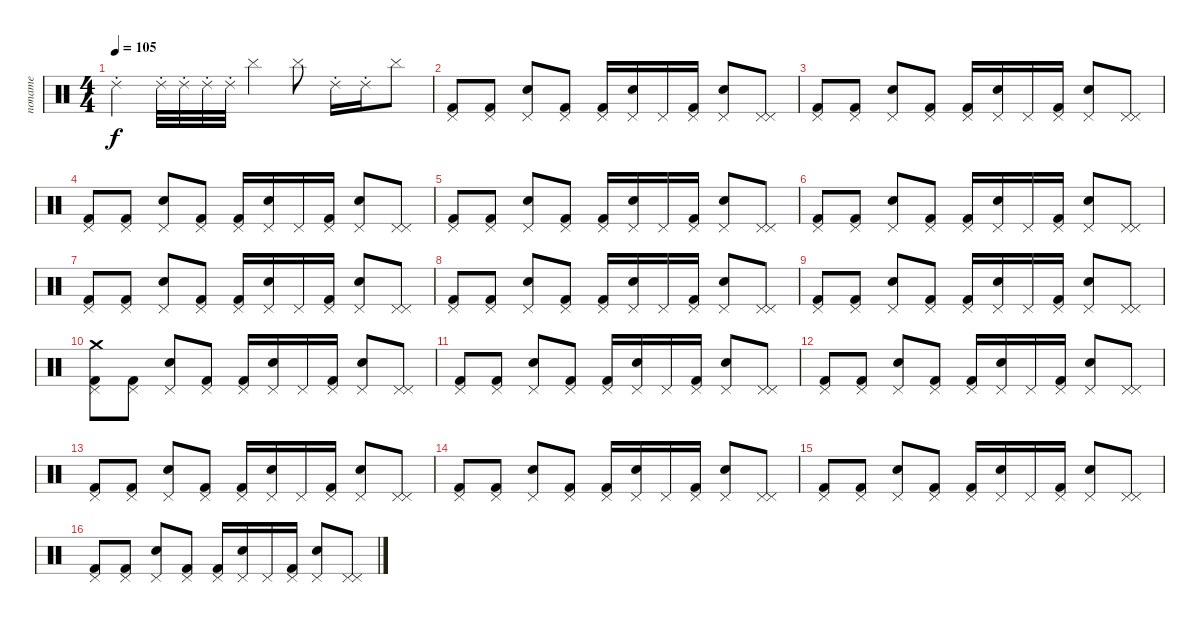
\track ("noname" "noname") {instrument percussion}
\staff {score}
\articulation defaults
\ts (4 4)
\tempo 105
\clef neutral
\ks c "Ride (choke) 2".4{dy f} "Ride (choke) 2".32 "Ride (choke) 2".32 "Ride (choke) 2".32 "Ride (choke) 2".32 "Cymbal (hit)".4 "Cymbal (hit)".8 "Ride (choke) 2".16 "Ride (choke) 2".16 "Cymbal (hit)".8
|
("Pedal Hi-Hat (hit)" "Kick (hit) 2").8 ("Pedal Hi-Hat (hit)" "Kick (hit) 2").8 ("Pedal Hi-Hat (hit)" "Snare (hit) 2").8 ("Pedal Hi-Hat (hit)" "Kick (hit) 2").8 ("Pedal Hi-Hat (hit)" "Kick (hit) 2").16 ("Pedal Hi-Hat (hit)" "Snare (hit) 2").16 "Pedal Hi-Hat (hit)".16 ("Pedal Hi-Hat (hit)" "Kick (hit) 2").16 ("Pedal Hi-Hat (hit)" "Snare (hit) 2").8 ("Pedal Hi-Hat (hit)" "Pedal Hi-Hat (hit)").8 |
("Pedal Hi-Hat (hit)" "Kick (hit) 2").8 ("Pedal Hi-Hat (hit)" "Kick (hit) 2").8 ("Pedal Hi-Hat (hit)" "Snare (hit) 2").8 ("Pedal Hi-Hat (hit)" "Kick (hit) 2").8 ("Pedal Hi-Hat (hit)" "Kick (hit) 2").16 ("Pedal Hi-Hat (hit)" "Snare (hit) 2").16 "Pedal Hi-Hat (hit)".16 ("Pedal Hi-Hat (hit)" "Kick (hit) 2").16 ("Pedal Hi-Hat (hit)" "Snare (hit) 2").8 ("Pedal Hi-Hat (hit)" "Pedal Hi-Hat (hit)").8 |
("Pedal Hi-Hat (hit)" "Kick (hit) 2").8 ("Pedal Hi-Hat (hit)" "Kick (hit) 2").8 ("Pedal Hi-Hat (hit)" "Snare (hit) 2").8 ("Pedal Hi-Hat (hit)" "Kick (hit) 2").8 ("Pedal Hi-Hat (hit)" "Kick (hit) 2").16 ("Pedal Hi-Hat (hit)" "Snare (hit) 2").16 "Pedal Hi-Hat (hit)".16 ("Pedal Hi-Hat (hit)" "Kick (hit) 2").16 ("Pedal Hi-Hat (hit)" "Snare (hit) 2").8 ("Pedal Hi-Hat (hit)" "Pedal Hi-Hat (hit)").8 |
("Pedal Hi-Hat (hit)" "Kick (hit) 2").8 ("Pedal Hi-Hat (hit)" "Kick (hit) 2").8 ("Pedal Hi-Hat (hit)" "Snare (hit) 2").8 ("Pedal Hi-Hat (hit)" "Kick (hit) 2").8 ("Pedal Hi-Hat (hit)" "Kick (hit) 2").16 ("Pedal Hi-Hat (hit)" "Snare (hit) 2").16 "Pedal Hi-Hat (hit)".16 ("Pedal Hi-Hat (hit)" "Kick (hit) 2").16 ("Pedal Hi-Hat (hit)" "Snare (hit) 2").8 ("Pedal Hi-Hat (hit)" "Pedal Hi-Hat (hit)").8 |
("Pedal Hi-Hat (hit)" "Kick (hit) 2").8 ("Pedal Hi-Hat (hit)" "Kick (hit) 2").8 ("Pedal Hi-Hat (hit)" "Snare (hit) 2").8 ("Pedal Hi-Hat (hit)" "Kick (hit) 2").8 ("Pedal Hi-Hat (hit)" "Kick (hit) 2").16 ("Pedal Hi-Hat (hit)" "Snare (hit) 2").16 "Pedal Hi-Hat (hit)".16 ("Pedal Hi-Hat (hit)" "Kick (hit) 2").16 ("Pedal Hi-Hat (hit)" "Snare (hit) 2").8 ("Pedal Hi-Hat (hit)" "Pedal Hi-Hat (hit)").8 |
("Pedal Hi-Hat (hit)" "Kick (hit) 2").8 ("Pedal Hi-Hat (hit)" "Kick (hit) 2").8 ("Pedal Hi-Hat (hit)" "Snare (hit) 2").8 ("Pedal Hi-Hat (hit)" "Kick (hit) 2").8 ("Pedal Hi-Hat (hit)" "Kick (hit) 2").16 ("Pedal Hi-Hat (hit)" "Snare (hit) 2").16 "Pedal Hi-Hat (hit)".16 ("Pedal Hi-Hat (hit)" "Kick (hit) 2").16 ("Pedal Hi-Hat (hit)" "Snare (hit) 2").8 ("Pedal Hi-Hat (hit)" "Pedal Hi-Hat (hit)").8 |
("Pedal Hi-Hat (hit)" "Kick (hit) 2").8 ("Pedal Hi-Hat (hit)" "Kick (hit) 2").8 ("Pedal Hi-Hat (hit)" "Snare (hit) 2").8 ("Pedal Hi-Hat (hit)" "Kick (hit) 2").8 ("Pedal Hi-Hat (hit)" "Kick (hit) 2").16 ("Pedal Hi-Hat (hit)" "Snare (hit) 2").16 "Pedal Hi-Hat (hit)".16 ("Pedal Hi-Hat (hit)" "Kick (hit) 2").16 ("Pedal Hi-Hat (hit)" "Snare (hit) 2").8 ("Pedal Hi-Hat (hit)" "Pedal Hi-Hat (hit)").8 |
("Pedal Hi-Hat (hit)" "Kick (hit) 2").8 ("Pedal Hi-Hat (hit)" "Kick (hit) 2").8 ("Pedal Hi-Hat (hit)" "Snare (hit) 2").8 ("Pedal Hi-Hat (hit)" "Kick (hit) 2").8 ("Pedal Hi-Hat (hit)" "Kick (hit) 2").16 ("Pedal Hi-Hat (hit)" "Snare (hit) 2").16 "Pedal Hi-Hat (hit)".16 ("Pedal Hi-Hat (hit)" "Kick (hit) 2").16 ("Pedal Hi-Hat (hit)" "Snare (hit) 2").8 ("Pedal Hi-Hat (hit)" "Pedal Hi-Hat (hit)").8 |
("Pedal Hi-Hat (hit)" "Crash medium (hit)" "Kick (hit) 2").8 ("Pedal Hi-Hat (hit)" "Kick (hit) 2").8 ("Pedal Hi-Hat (hit)" "Snare (hit) 2").8 ("Pedal Hi-Hat (hit)" "Kick (hit) 2").8 ("Pedal Hi-Hat (hit)" "Kick (hit) 2").16 ("Pedal Hi-Hat (hit)" "Snare (hit) 2").16 "Pedal Hi-Hat (hit)".16 ("Pedal Hi-Hat (hit)" "Kick (hit) 2").16 ("Pedal Hi-Hat (hit)" "Snare (hit) 2").8 ("Pedal Hi-Hat (hit)" "Pedal Hi-Hat (hit)").8 |
("Pedal Hi-Hat (hit)" "Kick (hit) 2").8 ("Pedal Hi-Hat (hit)" "Kick (hit) 2").8 ("Pedal Hi-Hat (hit)" "Snare (hit) 2").8 ("Pedal Hi-Hat (hit)" "Kick (hit) 2").8 ("Pedal Hi-Hat (hit)" "Kick (hit) 2").16 ("Pedal Hi-Hat (hit)" "Snare (hit) 2").16 "Pedal Hi-Hat (hit)".16 ("Pedal Hi-Hat (hit)" "Kick (hit) 2").16 ("Pedal Hi-Hat (hit)" "Snare (hit) 2").8 ("Pedal Hi-Hat (hit)" "Pedal Hi-Hat (hit)").8 |
("Pedal Hi-Hat (hit)" "Kick (hit) 2").8 ("Pedal Hi-Hat (hit)" "Kick (hit) 2").8 ("Pedal Hi-Hat (hit)" "Snare (hit) 2").8 ("Pedal Hi-Hat (hit)" "Kick (hit) 2").8 ("Pedal Hi-Hat (hit)" "Kick (hit) 2").16 ("Pedal Hi-Hat (hit)" "Snare (hit) 2").16 "Pedal Hi-Hat (hit)".16 ("Pedal Hi-Hat (hit)" "Kick (hit) 2").16 ("Pedal Hi-Hat (hit)" "Snare (hit) 2").8 ("Pedal Hi-Hat (hit)" "Pedal Hi-Hat (hit)").8 |
("Pedal Hi-Hat (hit)" "Kick (hit) 2").8 ("Pedal Hi-Hat (hit)" "Kick (hit) 2").8 ("Pedal Hi-Hat (hit)" "Snare (hit) 2").8 ("Pedal Hi-Hat (hit)" "Kick (hit) 2").8 ("Pedal Hi-Hat (hit)" "Kick (hit) 2").16 ("Pedal Hi-Hat (hit)" "Snare (hit) 2").16 "Pedal Hi-Hat (hit)".16 ("Pedal Hi-Hat (hit)" "Kick (hit) 2").16 ("Pedal Hi-Hat (hit)" "Snare (hit) 2").8 ("Pedal Hi-Hat (hit)" "Pedal Hi-Hat (hit)").8 |
("Pedal Hi-Hat (hit)" "Kick (hit) 2").8 ("Pedal Hi-Hat (hit)" "Kick (hit) 2").8 ("Pedal Hi-Hat (hit)" "Snare (hit) 2").8 ("Pedal Hi-Hat (hit)" "Kick (hit) 2").8 ("Pedal Hi-Hat (hit)" "Kick (hit) 2").16 ("Pedal Hi-Hat (hit)" "Snare (hit) 2").16 "Pedal Hi-Hat (hit)".16 ("Pedal Hi-Hat (hit)" "Kick (hit) 2").16 ("Pedal Hi-Hat (hit)" "Snare (hit) 2").8 ("Pedal Hi-Hat (hit)" "Pedal Hi-Hat (hit)").8 |
("Pedal Hi-Hat (hit)" "Kick (hit) 2").8 ("Pedal Hi-Hat (hit)" "Kick (hit) 2").8 ("Pedal Hi-Hat (hit)" "Snare (hit) 2").8 ("Pedal Hi-Hat (hit)" "Kick (hit) 2").8 ("Pedal Hi-Hat (hit)" "Kick (hit) 2").16 ("Pedal Hi-Hat (hit)" "Snare (hit) 2").16 "Pedal Hi-Hat (hit)".16 ("Pedal Hi-Hat (hit)" "Kick (hit) 2").16 ("Pedal Hi-Hat (hit)" "Snare (hit) 2").8 ("Pedal Hi-Hat (hit)" "Pedal Hi-Hat (hit)").8 |
("Pedal Hi-Hat (hit)" "Kick (hit) 2").8 ("Pedal Hi-Hat (hit)" "Kick (hit) 2").8 ("Pedal Hi-Hat (hit)" "Snare (hit) 2").8 ("Pedal Hi-Hat (hit)" "Kick (hit) 2").8 ("Pedal Hi-Hat (hit)" "Kick (hit) 2").16 ("Pedal Hi-Hat (hit)" "Snare (hit) 2").16 "Pedal Hi-Hat (hit)".16 ("Pedal Hi-Hat (hit)" "Kick (hit) 2").16 ("Pedal Hi-Hat (hit)" "Snare (hit) 2").8 ("Pedal Hi-Hat (hit)" "Pedal Hi-Hat (hit)").8
